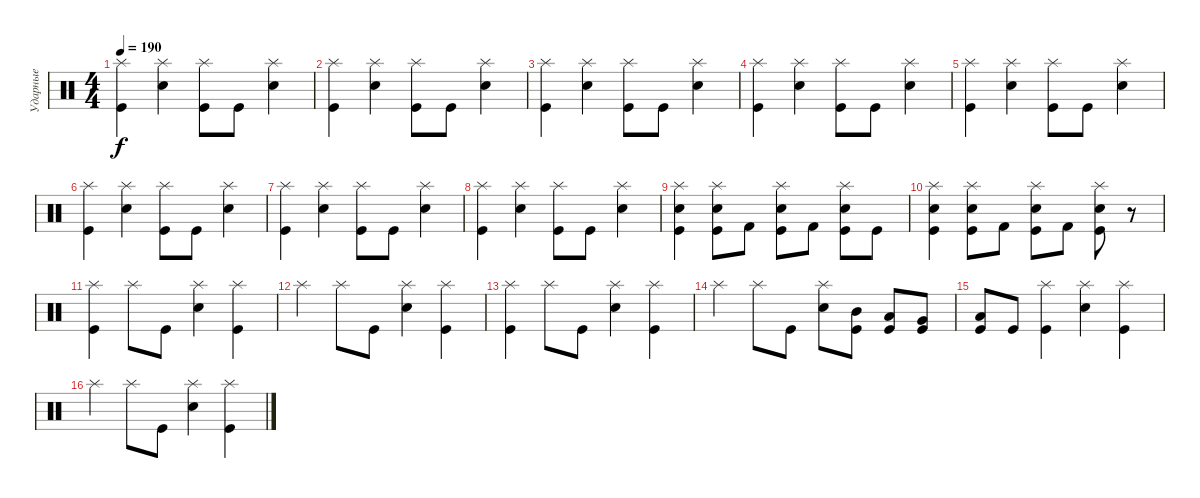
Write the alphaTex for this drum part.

\track ("Ударные" "Ударные") {instrument percussion}
\staff {score}
\articulation defaults
\ts (4 4)
\tempo 190
\clef neutral
\ks c
("Splash (hit)" "Kick (hit)").4{dy f} ("Splash (hit)" "Electric Snare (hit)").4 ("Splash (hit)" "Kick (hit)").8 "Kick (hit)".8 ("Splash (hit)" "Electric Snare (hit)").4 |
("Splash (hit)" "Kick (hit)").4 ("Splash (hit)" "Electric Snare (hit)").4 ("Splash (hit)" "Kick (hit)").8 "Kick (hit)".8 ("Splash (hit)" "Electric Snare (hit)").4 |
("Splash (hit)" "Kick (hit)").4 ("Splash (hit)" "Electric Snare (hit)").4 ("Splash (hit)" "Kick (hit)").8 "Kick (hit)".8 ("Splash (hit)" "Electric Snare (hit)").4 |
("Splash (hit)" "Kick (hit)").4 ("Splash (hit)" "Electric Snare (hit)").4 ("Splash (hit)" "Kick (hit)").8 "Kick (hit)".8 ("Splash (hit)" "Electric Snare (hit)").4 |
("Splash (hit)" "Kick (hit)").4 ("Splash (hit)" "Electric Snare (hit)").4 ("Splash (hit)" "Kick (hit)").8 "Kick (hit)".8 ("Splash (hit)" "Electric Snare (hit)").4 |
("Splash (hit)" "Kick (hit)").4 ("Splash (hit)" "Electric Snare (hit)").4 ("Splash (hit)" "Kick (hit)").8 "Kick (hit)".8 ("Splash (hit)" "Electric Snare (hit)").4 |
("Splash (hit)" "Kick (hit)").4 ("Splash (hit)" "Electric Snare (hit)").4 ("Splash (hit)" "Kick (hit)").8 "Kick (hit)".8 ("Splash (hit)" "Electric Snare (hit)").4 |
("Splash (hit)" "Kick (hit)").4 ("Splash (hit)" "Electric Snare (hit)").4 ("Splash (hit)" "Kick (hit)").8 "Kick (hit)".8 ("Splash (hit)" "Electric Snare (hit)").4 |
("Splash (hit)" "Electric Snare (hit)" "Kick (hit)").4 ("Splash (hit)" "Electric Snare (hit)" "Kick (hit)").8 "Kick (hit) 2".8 ("Splash (hit)" "Electric Snare (hit)" "Kick (hit)").8 "Kick (hit) 2".8 ("Splash (hit)" "Electric Snare (hit)" "Kick (hit)").8 "Kick (hit)".8 |
("Splash (hit)" "Electric Snare (hit)" "Kick (hit)").4 ("Splash (hit)" "Electric Snare (hit)" "Kick (hit)").8 "Kick (hit) 2".8 ("Splash (hit)" "Electric Snare (hit)" "Kick (hit)").8 "Kick (hit) 2".8 ("Splash (hit)" "Electric Snare (hit)" "Kick (hit)").8 r.8 |
("Splash (hit)" "Kick (hit)").4 "Splash (hit)".8 "Kick (hit)".8 ("Splash (hit)" "Electric Snare (hit)").4 ("Splash (hit)" "Kick (hit)").4 |
"Splash (hit)".4 "Splash (hit)".8 "Kick (hit)".8 ("Splash (hit)" "Electric Snare (hit)").4 ("Splash (hit)" "Kick (hit)").4 |
("Splash (hit)" "Kick (hit)").4 "Splash (hit)".8 "Kick (hit)".8 ("Splash (hit)" "Electric Snare (hit)").4 ("Splash (hit)" "Kick (hit)").4 |
"Splash (hit)".4 "Splash (hit)".8 "Kick (hit)".8 ("Splash (hit)" "Electric Snare (hit)").8 ("Mid Tom (hit)" "Kick (hit)").8 ("Low Tom (hit)" "Kick (hit)").8 ("Very Low Tom (hit)" "Kick (hit)").8 |
("Low Floor Tom (hit)" "Kick (hit)").8 "Kick (hit)".8 ("Splash (hit)" "Kick (hit)").4 ("Splash (hit)" "Electric Snare (hit)").4 ("Splash (hit)" "Kick (hit)").4 |
"Splash (hit)".4 "Splash (hit)".8 "Kick (hit)".8 ("Splash (hit)" "Electric Snare (hit)").4 ("Splash (hit)" "Kick (hit)").4
